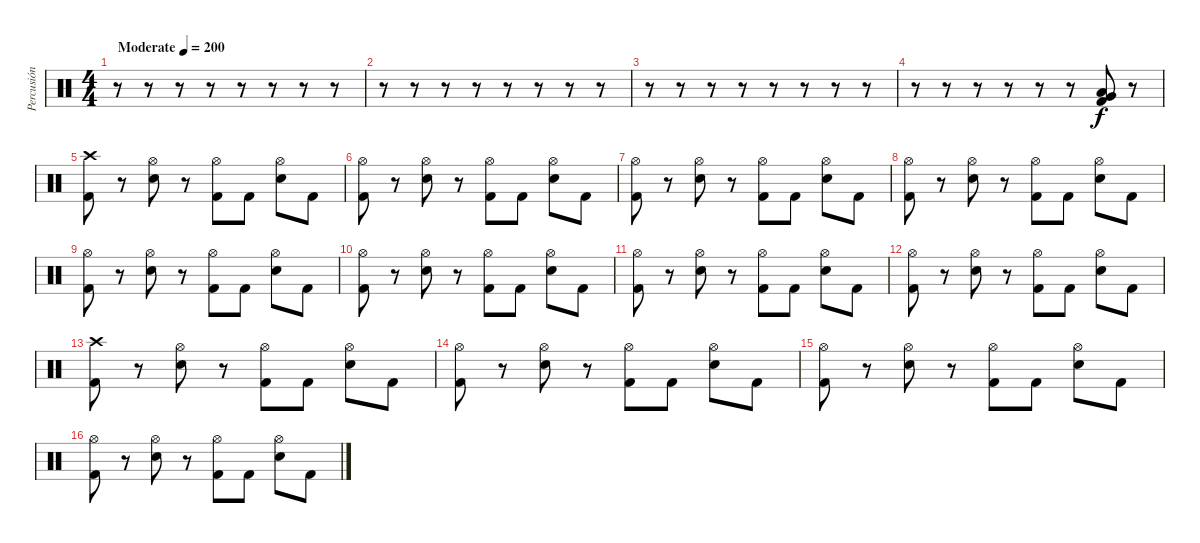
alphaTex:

\track ("Percusión" "Percusión") {instrument percussion}
\staff {score}
\articulation defaults
\ts (4 4)
\tempo (200 "Moderate")
\clef neutral
\ks c
r.8{dy f} r.8 r.8 r.8 r.8 r.8 r.8 r.8 |
r.8 r.8 r.8 r.8 r.8 r.8 r.8 r.8 |
r.8 r.8 r.8 r.8 r.8 r.8 r.8 r.8 |
r.8 r.8 r.8 r.8 r.8 r.8 ("Very Low Tom (hit)" "Low Tom (hit)" "Kick (hit) 2").8 r.8 |
("Crash high (hit)" "Kick (hit) 2").8 r.8 ("Hi-Hat (open)" "Electric Snare (hit)").8 r.8 ("Hi-Hat (open)" "Kick (hit) 2").8 "Kick (hit) 2".8 ("Hi-Hat (open)" "Electric Snare (hit)").8 "Kick (hit) 2".8 |
("Hi-Hat (open)" "Kick (hit) 2").8 r.8 ("Hi-Hat (open)" "Electric Snare (hit)").8 r.8 ("Hi-Hat (open)" "Kick (hit) 2").8 "Kick (hit) 2".8 ("Hi-Hat (open)" "Electric Snare (hit)").8 "Kick (hit) 2".8 |
("Hi-Hat (open)" "Kick (hit) 2").8 r.8 ("Hi-Hat (open)" "Electric Snare (hit)").8 r.8 ("Hi-Hat (open)" "Kick (hit) 2").8 "Kick (hit) 2".8 ("Hi-Hat (open)" "Electric Snare (hit)").8 "Kick (hit) 2".8 |
("Hi-Hat (open)" "Kick (hit) 2").8 r.8 ("Hi-Hat (open)" "Electric Snare (hit)").8 r.8 ("Hi-Hat (open)" "Kick (hit) 2").8 "Kick (hit) 2".8 ("Hi-Hat (open)" "Electric Snare (hit)").8 "Kick (hit) 2".8 |
("Hi-Hat (open)" "Kick (hit) 2").8 r.8 ("Hi-Hat (open)" "Electric Snare (hit)").8 r.8 ("Hi-Hat (open)" "Kick (hit) 2").8 "Kick (hit) 2".8 ("Hi-Hat (open)" "Electric Snare (hit)").8 "Kick (hit) 2".8 |
("Hi-Hat (open)" "Kick (hit) 2").8 r.8 ("Hi-Hat (open)" "Electric Snare (hit)").8 r.8 ("Hi-Hat (open)" "Kick (hit) 2").8 "Kick (hit) 2".8 ("Hi-Hat (open)" "Electric Snare (hit)").8 "Kick (hit) 2".8 |
("Hi-Hat (open)" "Kick (hit) 2").8 r.8 ("Hi-Hat (open)" "Electric Snare (hit)").8 r.8 ("Hi-Hat (open)" "Kick (hit) 2").8 "Kick (hit) 2".8 ("Hi-Hat (open)" "Electric Snare (hit)").8 "Kick (hit) 2".8 |
("Hi-Hat (open)" "Kick (hit) 2").8 r.8 ("Hi-Hat (open)" "Electric Snare (hit)").8 r.8 ("Hi-Hat (open)" "Kick (hit) 2").8 "Kick (hit) 2".8 ("Hi-Hat (open)" "Electric Snare (hit)").8 "Kick (hit) 2".8 |
("Crash high (hit)" "Kick (hit) 2").8 r.8 ("Hi-Hat (open)" "Electric Snare (hit)").8 r.8 ("Hi-Hat (open)" "Kick (hit) 2").8 "Kick (hit) 2".8 ("Hi-Hat (open)" "Electric Snare (hit)").8 "Kick (hit) 2".8 |
("Hi-Hat (open)" "Kick (hit) 2").8 r.8 ("Hi-Hat (open)" "Electric Snare (hit)").8 r.8 ("Hi-Hat (open)" "Kick (hit) 2").8 "Kick (hit) 2".8 ("Hi-Hat (open)" "Electric Snare (hit)").8 "Kick (hit) 2".8 |
("Hi-Hat (open)" "Kick (hit) 2").8 r.8 ("Hi-Hat (open)" "Electric Snare (hit)").8 r.8 ("Hi-Hat (open)" "Kick (hit) 2").8 "Kick (hit) 2".8 ("Hi-Hat (open)" "Electric Snare (hit)").8 "Kick (hit) 2".8 |
("Hi-Hat (open)" "Kick (hit) 2").8 r.8 ("Hi-Hat (open)" "Electric Snare (hit)").8 r.8 ("Hi-Hat (open)" "Kick (hit) 2").8 "Kick (hit) 2".8 ("Hi-Hat (open)" "Electric Snare (hit)").8 "Kick (hit) 2".8
